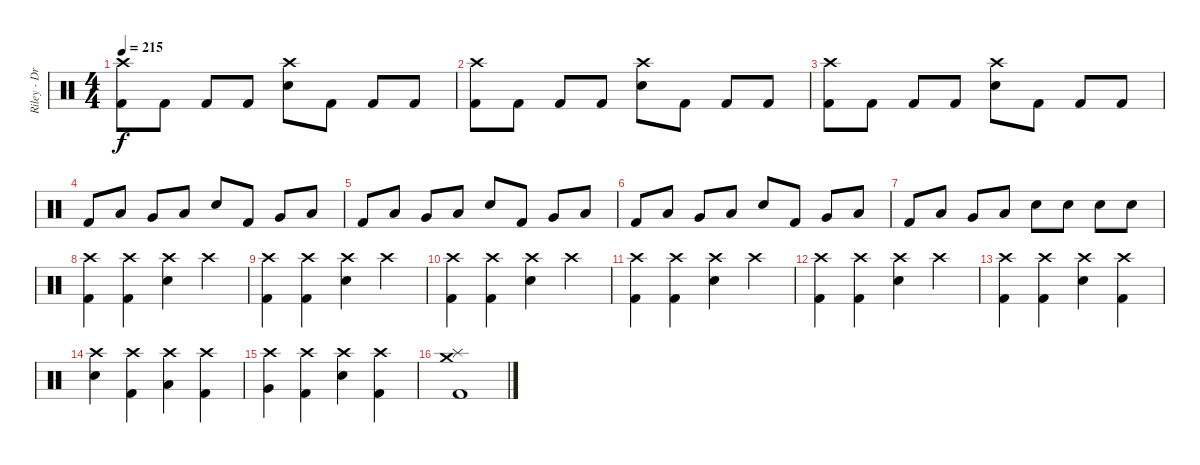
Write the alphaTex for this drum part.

\track ("Riley - Drums" "Riley - Dr") {instrument percussion}
\staff {score}
\articulation defaults
\ts (4 4)
\tempo 215
\clef neutral
\ks c
("Crash high (hit)" "Kick (hit) 2").8{dy f} "Kick (hit) 2".8 "Kick (hit) 2".8 "Kick (hit) 2".8 ("Crash high (hit)" "Electric Snare (hit)").8 "Kick (hit) 2".8 "Kick (hit) 2".8 "Kick (hit) 2".8 |
("Crash high (hit)" "Kick (hit) 2").8 "Kick (hit) 2".8 "Kick (hit) 2".8 "Kick (hit) 2".8 ("Crash high (hit)" "Electric Snare (hit)").8 "Kick (hit) 2".8 "Kick (hit) 2".8 "Kick (hit) 2".8 |
("Crash high (hit)" "Kick (hit) 2").8 "Kick (hit) 2".8 "Kick (hit) 2".8 "Kick (hit) 2".8 ("Crash high (hit)" "Electric Snare (hit)").8 "Kick (hit) 2".8 "Kick (hit) 2".8 "Kick (hit) 2".8 |
"Kick (hit) 2".8 "Low Tom (hit)".8 "Very Low Tom (hit)".8 "Low Floor Tom (hit)".8 "Electric Snare (hit)".8 "Kick (hit) 2".8 "Very Low Tom (hit)".8 "Low Floor Tom (hit)".8 |
"Kick (hit) 2".8 "Low Tom (hit)".8 "Very Low Tom (hit)".8 "Low Floor Tom (hit)".8 "Electric Snare (hit)".8 "Kick (hit) 2".8 "Very Low Tom (hit)".8 "Low Floor Tom (hit)".8 |
"Kick (hit) 2".8 "Low Tom (hit)".8 "Very Low Tom (hit)".8 "Low Floor Tom (hit)".8 "Electric Snare (hit)".8 "Kick (hit) 2".8 "Very Low Tom (hit)".8 "Low Floor Tom (hit)".8 |
"Kick (hit) 2".8 "Low Tom (hit)".8 "Very Low Tom (hit)".8 "Low Floor Tom (hit)".8 "Electric Snare (hit)".8 "Electric Snare (hit)".8 "Electric Snare (hit)".8 "Electric Snare (hit)".8 |
("Crash high (hit)" "Kick (hit) 2").4 ("Crash high (hit)" "Kick (hit) 2").4 ("Crash high (hit)" "Electric Snare (hit)").4 "Crash high (hit)".4 |
("Crash high (hit)" "Kick (hit) 2").4 ("Crash high (hit)" "Kick (hit) 2").4 ("Crash high (hit)" "Electric Snare (hit)").4 "Crash high (hit)".4 |
("Crash high (hit)" "Kick (hit) 2").4 ("Crash high (hit)" "Kick (hit) 2").4 ("Crash high (hit)" "Electric Snare (hit)").4 "Crash high (hit)".4 |
("Crash high (hit)" "Kick (hit) 2").4 ("Crash high (hit)" "Kick (hit) 2").4 ("Crash high (hit)" "Electric Snare (hit)").4 "Crash high (hit)".4 |
("Crash high (hit)" "Kick (hit) 2").4 ("Crash high (hit)" "Kick (hit) 2").4 ("Crash high (hit)" "Electric Snare (hit)").4 "Crash high (hit)".4 |
("Crash high (hit)" "Kick (hit) 2").4 ("Crash high (hit)" "Kick (hit) 2").4 ("Crash high (hit)" "Electric Snare (hit)").4 ("Crash high (hit)" "Kick (hit) 2").4 |
("Crash high (hit)" "Electric Snare (hit)").4 ("Crash high (hit)" "Kick (hit) 2").4 ("Crash high (hit)" "Low Tom (hit)").4 ("Crash high (hit)" "Kick (hit) 2").4 |
("Crash high (hit)" "Very Low Tom (hit)").4 ("Crash high (hit)" "Kick (hit) 2").4 ("Crash high (hit)" "Electric Snare (hit)").4 ("Crash high (hit)" "Kick (hit) 2").4 |
("Crash medium (hit)" "Splash (hit)" "Kick (hit) 2").1
